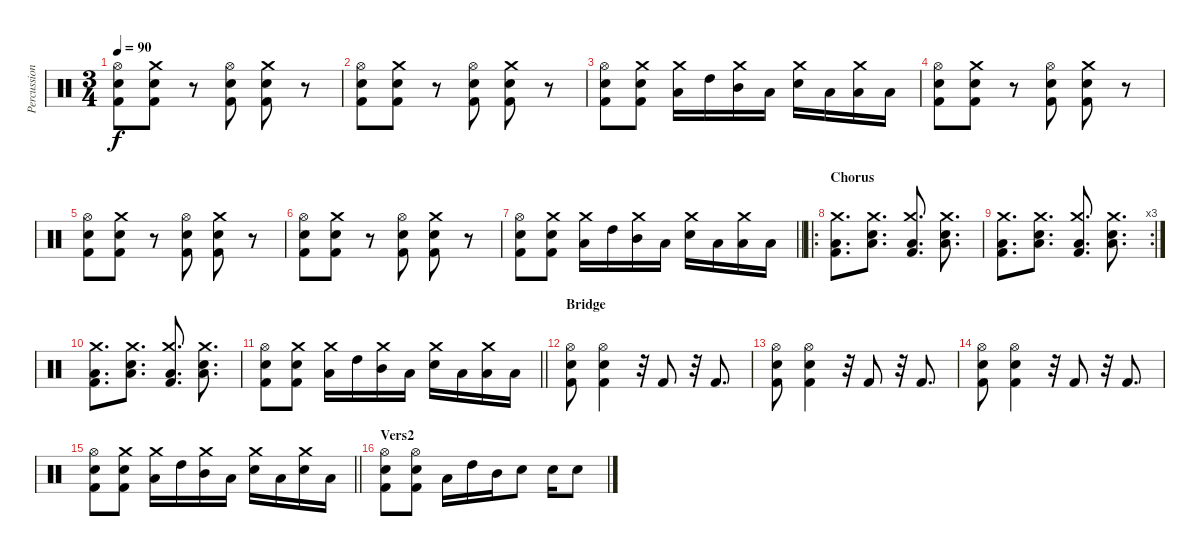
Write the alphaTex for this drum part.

\track ("Percussion" "Percussion") {instrument percussion}
\staff {score}
\articulation defaults
\ts (3 4)
\tempo 90
\clef neutral
\ks c
("Hi-Hat (open)" "Snare (hit) 2" "Kick (hit) 2").8{dy f} ("Crash medium (hit)" "Snare (hit) 2" "Kick (hit) 2").8 r.8 ("Hi-Hat (open)" "Snare (hit) 2" "Kick (hit) 2").8 ("Crash medium (hit)" "Snare (hit) 2" "Kick (hit) 2").8 r.8 |
("Hi-Hat (open)" "Snare (hit) 2" "Kick (hit) 2").8 ("Crash medium (hit)" "Snare (hit) 2" "Kick (hit) 2").8 r.8 ("Hi-Hat (open)" "Snare (hit) 2" "Kick (hit) 2").8 ("Crash medium (hit)" "Snare (hit) 2" "Kick (hit) 2").8 r.8 |
("Hi-Hat (open)" "Snare (hit) 2" "Kick (hit) 2").8 ("Crash medium (hit)" "Snare (hit) 2" "Kick (hit) 2").8 ("Crash medium (hit)" "Low Tom (hit)").16 "High Tom (hit)".16 ("Crash medium (hit)" "Mid Tom (hit)").16 "Low Tom (hit)".16 ("Crash medium (hit)" "Electric Snare (hit)").16 "Low Tom (hit)".16 ("Crash medium (hit)" "Low Tom (hit)").16 "Low Tom (hit)".16 |
("Hi-Hat (open)" "Snare (hit) 2" "Kick (hit) 2").8 ("Crash medium (hit)" "Snare (hit) 2" "Kick (hit) 2").8 r.8 ("Hi-Hat (open)" "Snare (hit) 2" "Kick (hit) 2").8 ("Crash medium (hit)" "Snare (hit) 2" "Kick (hit) 2").8 r.8 |
("Hi-Hat (open)" "Snare (hit) 2" "Kick (hit) 2").8 ("Crash medium (hit)" "Snare (hit) 2" "Kick (hit) 2").8 r.8 ("Hi-Hat (open)" "Snare (hit) 2" "Kick (hit) 2").8 ("Crash medium (hit)" "Snare (hit) 2" "Kick (hit) 2").8 r.8 |
("Hi-Hat (open)" "Snare (hit) 2" "Kick (hit) 2").8 ("Crash medium (hit)" "Snare (hit) 2" "Kick (hit) 2").8 r.8 ("Hi-Hat (open)" "Snare (hit) 2" "Kick (hit) 2").8 ("Crash medium (hit)" "Snare (hit) 2" "Kick (hit) 2").8 r.8 |
\barLineRight lightlight
("Hi-Hat (open)" "Snare (hit) 2" "Kick (hit) 2").8 ("Crash medium (hit)" "Snare (hit) 2" "Kick (hit) 2").8 ("Crash medium (hit)" "Low Tom (hit)").16 "High Tom (hit)".16 ("Crash medium (hit)" "Mid Tom (hit)").16 "Low Tom (hit)".16 ("Crash medium (hit)" "Electric Snare (hit)").16 "Low Tom (hit)".16 ("Crash medium (hit)" "Low Tom (hit)").16 "Low Tom (hit)".16 |
\ro
\section ("" "Chorus")
("Crash medium (hit)" "Low Tom (hit)" "Kick (hit) 2").8{d} ("Crash medium (hit)" "Low Tom (hit)" "Electric Snare (hit)").8{d} ("Crash medium (hit)" "Low Tom (hit)" "Kick (hit) 2").8{d} ("Crash medium (hit)" "Low Tom (hit)" "Electric Snare (hit)").8{d} |
\rc 3
("Crash medium (hit)" "Low Tom (hit)" "Kick (hit) 2").8{d} ("Crash medium (hit)" "Low Tom (hit)" "Electric Snare (hit)").8{d} ("Crash medium (hit)" "Low Tom (hit)" "Kick (hit) 2").8{d} ("Crash medium (hit)" "Low Tom (hit)" "Electric Snare (hit)").8{d} |
("Crash medium (hit)" "Low Tom (hit)" "Kick (hit) 2").8{d} ("Crash medium (hit)" "Low Tom (hit)" "Electric Snare (hit)").8{d} ("Crash medium (hit)" "Low Tom (hit)" "Kick (hit) 2").8{d} ("Crash medium (hit)" "Low Tom (hit)" "Electric Snare (hit)").8{d} |
\barLineRight lightlight
("Hi-Hat (open)" "Snare (hit) 2" "Kick (hit) 2").8 ("Crash medium (hit)" "Snare (hit) 2" "Kick (hit) 2").8 ("Crash medium (hit)" "Low Tom (hit)").16 "High Tom (hit)".16 ("Crash medium (hit)" "Mid Tom (hit)").16 "Low Tom (hit)".16 ("Crash medium (hit)" "Electric Snare (hit)").16 "Low Tom (hit)".16 ("Crash medium (hit)" "Low Tom (hit)").16 "Low Tom (hit)".16 |
\section ("" "Bridge")
("Hi-Hat (open)" "Snare (hit) 2" "Kick (hit) 2").8 ("Hi-Hat (open)" "Snare (hit) 2" "Kick (hit) 2").4 r.32 "Kick (hit) 2".8 r.32 "Kick (hit) 2".8{d} |
("Hi-Hat (open)" "Snare (hit) 2" "Kick (hit) 2").8 ("Hi-Hat (open)" "Snare (hit) 2" "Kick (hit) 2").4 r.32 "Kick (hit) 2".8 r.32 "Kick (hit) 2".8{d} |
("Hi-Hat (open)" "Snare (hit) 2" "Kick (hit) 2").8 ("Hi-Hat (open)" "Snare (hit) 2" "Kick (hit) 2").4 r.32 "Kick (hit) 2".8 r.32 "Kick (hit) 2".8{d} |
\barLineRight lightlight
("Hi-Hat (open)" "Snare (hit) 2" "Kick (hit) 2").8 ("Crash medium (hit)" "Snare (hit) 2" "Kick (hit) 2").8 ("Crash medium (hit)" "Low Tom (hit)").16 "High Tom (hit)".16 ("Crash medium (hit)" "Mid Tom (hit)").16 "Low Tom (hit)".16 ("Crash medium (hit)" "Electric Snare (hit)").16 "Low Tom (hit)".16 ("Crash medium (hit)" "Snare (hit) 2").16 "Low Tom (hit)".16 |
\section ("" "Vers2")
("Hi-Hat (open)" "Snare (hit) 2" "Kick (hit) 2").8 ("Hi-Hat (open)" "Snare (hit) 2" "Kick (hit) 2").8 "Low Tom (hit)".16 "High Tom (hit)".16 "Mid Tom (hit)".16 "Snare (hit) 2".8 "Snare (hit) 2".16 "Snare (hit) 2".8
